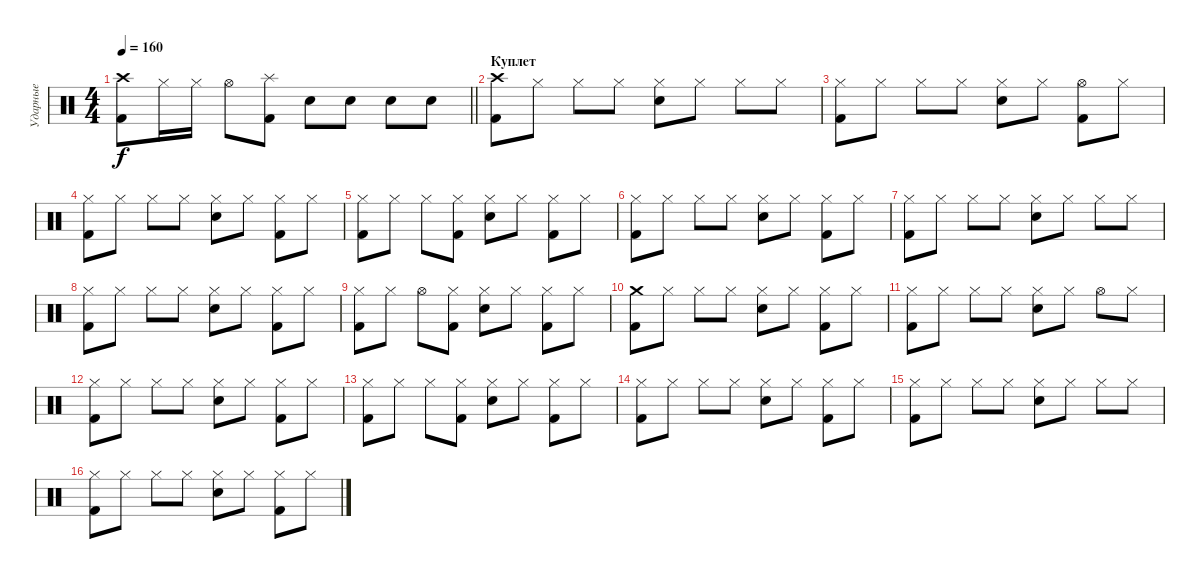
\track ("Ударные" "Ударные") {instrument percussion}
\staff {score}
\articulation defaults
\ts (4 4)
\tempo 160
\clef neutral
\barLineRight lightlight
\ks c
("Kick (hit) 2" "Crash high (hit)").8{dy f} "Hi-Hat (closed)".16 "Hi-Hat (closed)".16 "Hi-Hat (open)".8 ("Kick (hit) 2" "Splash (hit)").8 "Electric Snare (hit)".8 "Electric Snare (hit)".8 "Electric Snare (hit)".8 "Electric Snare (hit)".8 |
\section ("" "Куплет")
("Kick (hit) 2" "Crash high (hit)").8 "Hi-Hat (closed)".8 "Hi-Hat (closed)".8 "Hi-Hat (closed)".8 ("Electric Snare (hit)" "Hi-Hat (closed)").8 "Hi-Hat (closed)".8 "Hi-Hat (closed)".8 "Hi-Hat (closed)".8 |
("Kick (hit) 2" "Hi-Hat (closed)").8 "Hi-Hat (closed)".8 "Hi-Hat (closed)".8 "Hi-Hat (closed)".8 ("Electric Snare (hit)" "Hi-Hat (closed)").8 "Hi-Hat (closed)".8 ("Kick (hit) 2" "Hi-Hat (open)").8 "Hi-Hat (closed)".8 |
("Kick (hit) 2" "Hi-Hat (closed)").8 "Hi-Hat (closed)".8 "Hi-Hat (closed)".8 "Hi-Hat (closed)".8 ("Electric Snare (hit)" "Hi-Hat (closed)").8 "Hi-Hat (closed)".8 ("Kick (hit) 2" "Hi-Hat (closed)").8 "Hi-Hat (closed)".8 |
("Kick (hit) 2" "Hi-Hat (closed)").8 "Hi-Hat (closed)".8 "Hi-Hat (closed)".8 ("Kick (hit) 2" "Hi-Hat (closed)").8 ("Electric Snare (hit)" "Hi-Hat (closed)").8 "Hi-Hat (closed)".8 ("Kick (hit) 2" "Hi-Hat (closed)").8 "Hi-Hat (closed)".8 |
("Kick (hit) 2" "Hi-Hat (closed)").8 "Hi-Hat (closed)".8 "Hi-Hat (closed)".8 "Hi-Hat (closed)".8 ("Electric Snare (hit)" "Hi-Hat (closed)").8 "Hi-Hat (closed)".8 ("Kick (hit) 2" "Hi-Hat (closed)").8 "Hi-Hat (closed)".8 |
("Kick (hit) 2" "Hi-Hat (closed)").8 "Hi-Hat (closed)".8 "Hi-Hat (closed)".8 "Hi-Hat (closed)".8 ("Electric Snare (hit)" "Hi-Hat (closed)").8 "Hi-Hat (closed)".8 "Hi-Hat (closed)".8 "Hi-Hat (closed)".8 |
("Kick (hit) 2" "Hi-Hat (closed)").8 "Hi-Hat (closed)".8 "Hi-Hat (closed)".8 "Hi-Hat (closed)".8 ("Electric Snare (hit)" "Hi-Hat (closed)").8 "Hi-Hat (closed)".8 ("Kick (hit) 2" "Hi-Hat (closed)").8 "Hi-Hat (closed)".8 |
("Kick (hit) 2" "Hi-Hat (closed)").8 "Hi-Hat (closed)".8 "Hi-Hat (open)".8 ("Kick (hit) 2" "Hi-Hat (closed)").8 ("Electric Snare (hit)" "Hi-Hat (closed)").8 "Hi-Hat (closed)".8 ("Kick (hit) 2" "Hi-Hat (closed)").8 "Hi-Hat (closed)".8 |
("Kick (hit) 2" "Crash medium (hit)").8 "Hi-Hat (closed)".8 "Hi-Hat (closed)".8 "Hi-Hat (closed)".8 ("Electric Snare (hit)" "Hi-Hat (closed)").8 "Hi-Hat (closed)".8 ("Kick (hit) 2" "Hi-Hat (closed)").8 "Hi-Hat (closed)".8 |
("Kick (hit) 2" "Hi-Hat (closed)").8 "Hi-Hat (closed)".8 "Hi-Hat (closed)".8 "Hi-Hat (closed)".8 ("Electric Snare (hit)" "Hi-Hat (closed)").8 "Hi-Hat (closed)".8 "Hi-Hat (open)".8 "Hi-Hat (closed)".8 |
("Kick (hit) 2" "Hi-Hat (closed)").8 "Hi-Hat (closed)".8 "Hi-Hat (closed)".8 "Hi-Hat (closed)".8 ("Electric Snare (hit)" "Hi-Hat (closed)").8 "Hi-Hat (closed)".8 ("Kick (hit) 2" "Hi-Hat (closed)").8 "Hi-Hat (closed)".8 |
("Kick (hit) 2" "Hi-Hat (closed)").8 "Hi-Hat (closed)".8 "Hi-Hat (closed)".8 ("Kick (hit) 2" "Hi-Hat (closed)").8 ("Electric Snare (hit)" "Hi-Hat (closed)").8 "Hi-Hat (closed)".8 ("Kick (hit) 2" "Hi-Hat (closed)").8 "Hi-Hat (closed)".8 |
("Kick (hit) 2" "Hi-Hat (closed)").8 "Hi-Hat (closed)".8 "Hi-Hat (closed)".8 "Hi-Hat (closed)".8 ("Electric Snare (hit)" "Hi-Hat (closed)").8 "Hi-Hat (closed)".8 ("Kick (hit) 2" "Hi-Hat (closed)").8 "Hi-Hat (closed)".8 |
("Kick (hit) 2" "Hi-Hat (closed)").8 "Hi-Hat (closed)".8 "Hi-Hat (closed)".8 "Hi-Hat (closed)".8 ("Electric Snare (hit)" "Hi-Hat (closed)").8 "Hi-Hat (closed)".8 "Hi-Hat (closed)".8 "Hi-Hat (closed)".8 |
("Kick (hit) 2" "Hi-Hat (closed)").8 "Hi-Hat (closed)".8 "Hi-Hat (closed)".8 "Hi-Hat (closed)".8 ("Electric Snare (hit)" "Hi-Hat (closed)").8 "Hi-Hat (closed)".8 ("Kick (hit) 2" "Hi-Hat (closed)").8 "Hi-Hat (closed)".8
